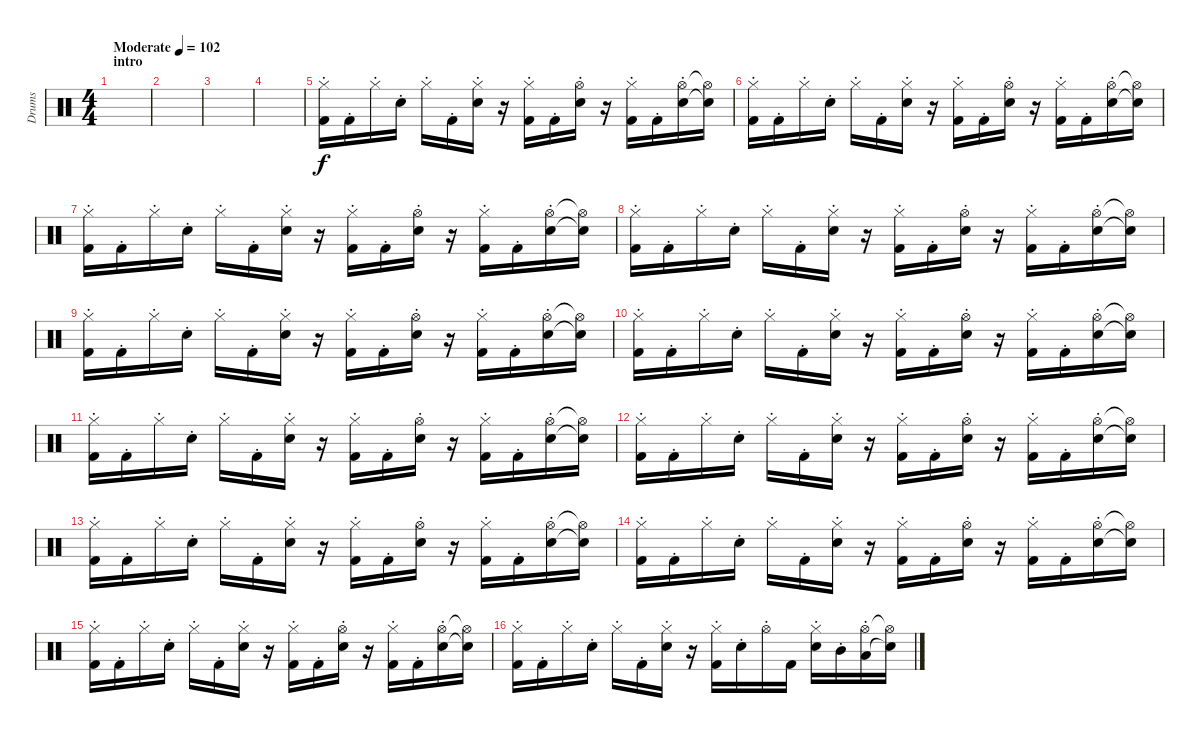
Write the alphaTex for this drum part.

\track ("Drums" "Drums") {instrument percussion}
\staff {score}
\articulation defaults
\ts (4 4)
\section ("" "intro")
\tempo (102 "Moderate")
\clef neutral
\ks c
|
|
|
|
("Kick (hit) 2"{st} "Hi-Hat (closed)"{st}).16 "Kick (hit) 2"{st}.16 "Hi-Hat (closed)"{st}.16 "Electric Snare (hit)"{st}.16 "Hi-Hat (closed)"{st}.16 "Kick (hit) 2"{st}.16 ("Electric Snare (hit)"{st} "Hi-Hat (closed)"{st}).16 r.16 ("Kick (hit) 2"{st} "Hi-Hat (closed)"{st}).16 "Kick (hit) 2"{st}.16 ("Electric Snare (hit)"{st} "Hi-Hat (open)"{st}).16 r.16 ("Kick (hit) 2"{st} "Hi-Hat (closed)"{st}).16 "Kick (hit) 2"{st}.16 ("Electric Snare (hit)"{st} "Hi-Hat (open)"{st}).16 ("Electric Snare (hit)"{t} "Hi-Hat (open)"{t}).16 |
("Kick (hit) 2"{st} "Hi-Hat (closed)"{st}).16 "Kick (hit) 2"{st}.16 "Hi-Hat (closed)"{st}.16 "Electric Snare (hit)"{st}.16 "Hi-Hat (closed)"{st}.16 "Kick (hit) 2"{st}.16 ("Electric Snare (hit)"{st} "Hi-Hat (closed)"{st}).16 r.16 ("Kick (hit) 2"{st} "Hi-Hat (closed)"{st}).16 "Kick (hit) 2"{st}.16 ("Electric Snare (hit)"{st} "Hi-Hat (open)"{st}).16 r.16 ("Kick (hit) 2"{st} "Hi-Hat (closed)"{st}).16 "Kick (hit) 2"{st}.16 ("Electric Snare (hit)"{st} "Hi-Hat (open)"{st}).16 ("Electric Snare (hit)"{t} "Hi-Hat (open)"{t}).16 |
("Kick (hit) 2"{st} "Hi-Hat (closed)"{st}).16 "Kick (hit) 2"{st}.16 "Hi-Hat (closed)"{st}.16 "Electric Snare (hit)"{st}.16 "Hi-Hat (closed)"{st}.16 "Kick (hit) 2"{st}.16 ("Electric Snare (hit)"{st} "Hi-Hat (closed)"{st}).16 r.16 ("Kick (hit) 2"{st} "Hi-Hat (closed)"{st}).16 "Kick (hit) 2"{st}.16 ("Electric Snare (hit)"{st} "Hi-Hat (open)"{st}).16 r.16 ("Kick (hit) 2"{st} "Hi-Hat (closed)"{st}).16 "Kick (hit) 2"{st}.16 ("Electric Snare (hit)"{st} "Hi-Hat (open)"{st}).16 ("Electric Snare (hit)"{t} "Hi-Hat (open)"{t}).16 |
("Kick (hit) 2"{st} "Hi-Hat (closed)"{st}).16 "Kick (hit) 2"{st}.16 "Hi-Hat (closed)"{st}.16 "Electric Snare (hit)"{st}.16 "Hi-Hat (closed)"{st}.16 "Kick (hit) 2"{st}.16 ("Electric Snare (hit)"{st} "Hi-Hat (closed)"{st}).16 r.16 ("Kick (hit) 2"{st} "Hi-Hat (closed)"{st}).16 "Kick (hit) 2"{st}.16 ("Electric Snare (hit)"{st} "Hi-Hat (open)"{st}).16 r.16 ("Kick (hit) 2"{st} "Hi-Hat (closed)"{st}).16 "Kick (hit) 2"{st}.16 ("Electric Snare (hit)"{st} "Hi-Hat (open)"{st}).16 ("Electric Snare (hit)"{t} "Hi-Hat (open)"{t}).16 |
("Kick (hit) 2"{st} "Hi-Hat (closed)"{st}).16 "Kick (hit) 2"{st}.16 "Hi-Hat (closed)"{st}.16 "Electric Snare (hit)"{st}.16 "Hi-Hat (closed)"{st}.16 "Kick (hit) 2"{st}.16 ("Electric Snare (hit)"{st} "Hi-Hat (closed)"{st}).16 r.16 ("Kick (hit) 2"{st} "Hi-Hat (closed)"{st}).16 "Kick (hit) 2"{st}.16 ("Electric Snare (hit)"{st} "Hi-Hat (open)"{st}).16 r.16 ("Kick (hit) 2"{st} "Hi-Hat (closed)"{st}).16 "Kick (hit) 2"{st}.16 ("Electric Snare (hit)"{st} "Hi-Hat (open)"{st}).16 ("Electric Snare (hit)"{t} "Hi-Hat (open)"{t}).16 |
("Kick (hit) 2"{st} "Hi-Hat (closed)"{st}).16 "Kick (hit) 2"{st}.16 "Hi-Hat (closed)"{st}.16 "Electric Snare (hit)"{st}.16 "Hi-Hat (closed)"{st}.16 "Kick (hit) 2"{st}.16 ("Electric Snare (hit)"{st} "Hi-Hat (closed)"{st}).16 r.16 ("Kick (hit) 2"{st} "Hi-Hat (closed)"{st}).16 "Kick (hit) 2"{st}.16 ("Electric Snare (hit)"{st} "Hi-Hat (open)"{st}).16 r.16 ("Kick (hit) 2"{st} "Hi-Hat (closed)"{st}).16 "Kick (hit) 2"{st}.16 ("Electric Snare (hit)"{st} "Hi-Hat (open)"{st}).16 ("Electric Snare (hit)"{t} "Hi-Hat (open)"{t}).16 |
("Kick (hit) 2"{st} "Hi-Hat (closed)"{st}).16 "Kick (hit) 2"{st}.16 "Hi-Hat (closed)"{st}.16 "Electric Snare (hit)"{st}.16 "Hi-Hat (closed)"{st}.16 "Kick (hit) 2"{st}.16 ("Electric Snare (hit)"{st} "Hi-Hat (closed)"{st}).16 r.16 ("Kick (hit) 2"{st} "Hi-Hat (closed)"{st}).16 "Kick (hit) 2"{st}.16 ("Electric Snare (hit)"{st} "Hi-Hat (open)"{st}).16 r.16 ("Kick (hit) 2"{st} "Hi-Hat (closed)"{st}).16 "Kick (hit) 2"{st}.16 ("Electric Snare (hit)"{st} "Hi-Hat (open)"{st}).16 ("Electric Snare (hit)"{t} "Hi-Hat (open)"{t}).16 |
("Kick (hit) 2"{st} "Hi-Hat (closed)"{st}).16 "Kick (hit) 2"{st}.16 "Hi-Hat (closed)"{st}.16 "Electric Snare (hit)"{st}.16 "Hi-Hat (closed)"{st}.16 "Kick (hit) 2"{st}.16 ("Electric Snare (hit)"{st} "Hi-Hat (closed)"{st}).16 r.16 ("Kick (hit) 2"{st} "Hi-Hat (closed)"{st}).16 "Kick (hit) 2"{st}.16 ("Electric Snare (hit)"{st} "Hi-Hat (open)"{st}).16 r.16 ("Kick (hit) 2"{st} "Hi-Hat (closed)"{st}).16 "Kick (hit) 2"{st}.16 ("Electric Snare (hit)"{st} "Hi-Hat (open)"{st}).16 ("Electric Snare (hit)"{t} "Hi-Hat (open)"{t}).16 |
("Kick (hit) 2"{st} "Hi-Hat (closed)"{st}).16 "Kick (hit) 2"{st}.16 "Hi-Hat (closed)"{st}.16 "Electric Snare (hit)"{st}.16 "Hi-Hat (closed)"{st}.16 "Kick (hit) 2"{st}.16 ("Electric Snare (hit)"{st} "Hi-Hat (closed)"{st}).16 r.16 ("Kick (hit) 2"{st} "Hi-Hat (closed)"{st}).16 "Kick (hit) 2"{st}.16 ("Electric Snare (hit)"{st} "Hi-Hat (open)"{st}).16 r.16 ("Kick (hit) 2"{st} "Hi-Hat (closed)"{st}).16 "Kick (hit) 2"{st}.16 ("Electric Snare (hit)"{st} "Hi-Hat (open)"{st}).16 ("Electric Snare (hit)"{t} "Hi-Hat (open)"{t}).16 |
("Kick (hit) 2"{st} "Hi-Hat (closed)"{st}).16 "Kick (hit) 2"{st}.16 "Hi-Hat (closed)"{st}.16 "Electric Snare (hit)"{st}.16 "Hi-Hat (closed)"{st}.16 "Kick (hit) 2"{st}.16 ("Electric Snare (hit)"{st} "Hi-Hat (closed)"{st}).16 r.16 ("Kick (hit) 2"{st} "Hi-Hat (closed)"{st}).16 "Kick (hit) 2"{st}.16 ("Electric Snare (hit)"{st} "Hi-Hat (open)"{st}).16 r.16 ("Kick (hit) 2"{st} "Hi-Hat (closed)"{st}).16 "Kick (hit) 2"{st}.16 ("Electric Snare (hit)"{st} "Hi-Hat (open)"{st}).16 ("Electric Snare (hit)"{t} "Hi-Hat (open)"{t}).16 |
("Kick (hit) 2"{st} "Hi-Hat (closed)"{st}).16 "Kick (hit) 2"{st}.16 "Hi-Hat (closed)"{st}.16 "Electric Snare (hit)"{st}.16 "Hi-Hat (closed)"{st}.16 "Kick (hit) 2"{st}.16 ("Electric Snare (hit)"{st} "Hi-Hat (closed)"{st}).16 r.16 ("Kick (hit) 2"{st} "Hi-Hat (closed)"{st}).16 "Kick (hit) 2"{st}.16 ("Electric Snare (hit)"{st} "Hi-Hat (open)"{st}).16 r.16 ("Kick (hit) 2"{st} "Hi-Hat (closed)"{st}).16 "Kick (hit) 2"{st}.16 ("Electric Snare (hit)"{st} "Hi-Hat (open)"{st}).16 ("Electric Snare (hit)"{t} "Hi-Hat (open)"{t}).16 |
("Kick (hit) 2"{st} "Hi-Hat (closed)"{st}).16 "Kick (hit) 2"{st}.16 "Hi-Hat (closed)"{st}.16 "Electric Snare (hit)"{st}.16 "Hi-Hat (closed)"{st}.16 "Kick (hit) 2"{st}.16 ("Electric Snare (hit)"{st} "Hi-Hat (closed)"{st}).16 r.16 ("Kick (hit) 2"{st} "Hi-Hat (closed)"{st}).16 "Electric Snare (hit)"{st}.16 "Hi-Hat (open)"{st}.16 "Kick (hit) 2".16 ("Electric Snare (hit)"{st} "Hi-Hat (closed)"{st}).16 "Mid Tom (hit)"{st}.16 ("Low Floor Tom (hit)"{st} "Hi-Hat (open)"{st}).16 ("Electric Snare (hit)"{t} "Hi-Hat (open)"{t}).16
